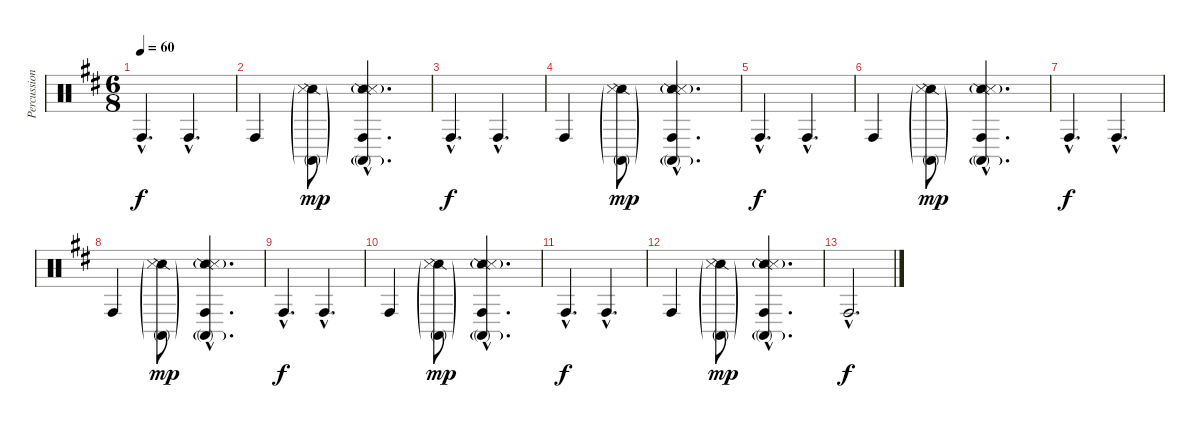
\track ("Percussions" "Percussion") {instrument percussion}
\staff {score}
\articulation defaults
\ts (6 8)
\tempo 60
\clef neutral
\ks bminor "Conga high (hit)"{hac}.4{d dy f} "Conga high (hit)"{hac}.4{d}
|
"Conga high (hit)".4 ("Snare (side stick) 2"{g} "Conga high (mute)"{g} "Metronome (hit)"{g}).8{dy mp} ("Conga high (hit)"{hac} "Snare (side stick) 2"{g hac} "Conga high (mute)"{g hac} "Metronome (hit)"{g hac}).4{d} |
"Conga high (hit)"{hac}.4{d dy f} "Conga high (hit)"{hac}.4{d} |
"Conga high (hit)".4 ("Snare (side stick) 2"{g} "Conga high (mute)"{g} "Metronome (hit)"{g}).8{dy mp} ("Conga high (hit)"{hac} "Snare (side stick) 2"{g hac} "Conga high (mute)"{g hac} "Metronome (hit)"{g hac}).4{d} |
"Conga high (hit)"{hac}.4{d dy f} "Conga high (hit)"{hac}.4{d} |
"Conga high (hit)".4 ("Snare (side stick) 2"{g} "Conga high (mute)"{g} "Metronome (hit)"{g}).8{dy mp} ("Conga high (hit)"{hac} "Snare (side stick) 2"{g hac} "Conga high (mute)"{g hac} "Metronome (hit)"{g hac}).4{d} |
"Conga high (hit)"{hac}.4{d dy f} "Conga high (hit)"{hac}.4{d} |
"Conga high (hit)".4 ("Snare (side stick) 2"{g} "Conga high (mute)"{g} "Metronome (hit)"{g}).8{dy mp} ("Conga high (hit)"{hac} "Snare (side stick) 2"{g hac} "Conga high (mute)"{g hac} "Metronome (hit)"{g hac}).4{d} |
"Conga high (hit)"{hac}.4{d dy f} "Conga high (hit)"{hac}.4{d} |
"Conga high (hit)".4 ("Snare (side stick) 2"{g} "Conga high (mute)"{g} "Metronome (hit)"{g}).8{dy mp} ("Conga high (hit)"{hac} "Snare (side stick) 2"{g hac} "Conga high (mute)"{g hac} "Metronome (hit)"{g hac}).4{d} |
"Conga high (hit)"{hac}.4{d dy f} "Conga high (hit)"{hac}.4{d} |
"Conga high (hit)".4 ("Snare (side stick) 2"{g} "Conga high (mute)"{g} "Metronome (hit)"{g}).8{dy mp} ("Conga high (hit)"{hac} "Snare (side stick) 2"{g hac} "Conga high (mute)"{g hac} "Metronome (hit)"{g hac}).4{d} |
"Conga high (hit)"{hac}.2{d dy f}
